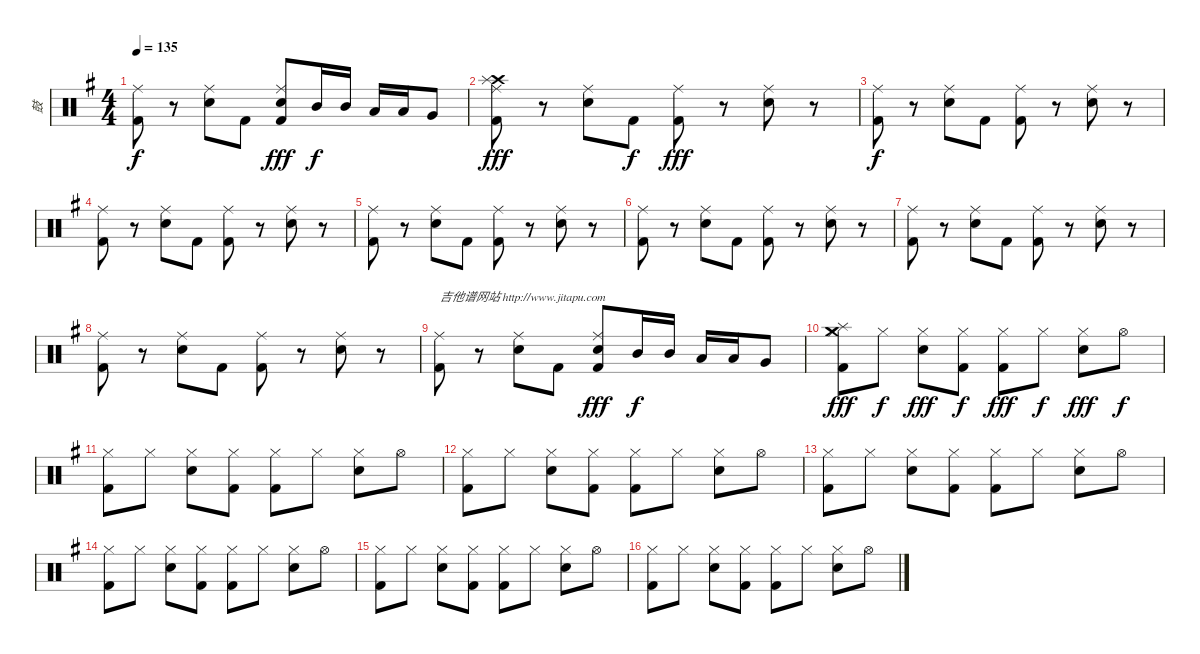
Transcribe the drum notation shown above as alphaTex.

\track ("鼓" "鼓") {instrument percussion}
\staff {score}
\articulation defaults
\ts (4 4)
\tempo 135
\clef neutral
\ks g
("Kick (hit) 2" "Ride (middle)").8{dy f} r.8 ("Snare (hit) 2" "Ride (middle)").8 "Kick (hit) 2".8 ("Kick (hit) 2" "Snare (hit) 2" "Ride (middle)").8{dy fff} "Mid Tom (hit)".16{dy f} "Mid Tom (hit)".16 "Low Tom (hit)".16 "Low Tom (hit)".16 "Very Low Tom (hit)".8 |
("Crash high (hit)" "Splash (hit)" "Kick (hit) 2" "Ride (middle)").8{dy fff} r.8 ("Snare (hit) 2" "Ride (middle)").8 "Kick (hit) 2".8{dy f} ("Kick (hit) 2" "Ride (middle)").8{dy fff} r.8 ("Snare (hit) 2" "Ride (middle)").8 r.8 |
("Kick (hit) 2" "Ride (middle)").8{dy f} r.8 ("Snare (hit) 2" "Ride (middle)").8 "Kick (hit) 2".8 ("Kick (hit) 2" "Ride (middle)").8 r.8 ("Snare (hit) 2" "Ride (middle)").8 r.8 |
("Kick (hit) 2" "Ride (middle)").8 r.8 ("Snare (hit) 2" "Ride (middle)").8 "Kick (hit) 2".8 ("Kick (hit) 2" "Ride (middle)").8 r.8 ("Snare (hit) 2" "Ride (middle)").8 r.8 |
("Kick (hit) 2" "Ride (middle)").8 r.8 ("Snare (hit) 2" "Ride (middle)").8 "Kick (hit) 2".8 ("Kick (hit) 2" "Ride (middle)").8 r.8 ("Snare (hit) 2" "Ride (middle)").8 r.8 |
("Kick (hit) 2" "Ride (middle)").8 r.8 ("Snare (hit) 2" "Ride (middle)").8 "Kick (hit) 2".8 ("Kick (hit) 2" "Ride (middle)").8 r.8 ("Snare (hit) 2" "Ride (middle)").8 r.8 |
("Kick (hit) 2" "Ride (middle)").8 r.8 ("Snare (hit) 2" "Ride (middle)").8 "Kick (hit) 2".8 ("Kick (hit) 2" "Ride (middle)").8 r.8 ("Snare (hit) 2" "Ride (middle)").8 r.8 |
("Kick (hit) 2" "Ride (middle)").8 r.8 ("Snare (hit) 2" "Ride (middle)").8 "Kick (hit) 2".8 ("Kick (hit) 2" "Ride (middle)").8 r.8 ("Snare (hit) 2" "Ride (middle)").8 r.8 |
("Kick (hit) 2" "Ride (middle)").8{txt "吉他谱网站 http://www.jitapu.com"} r.8 ("Snare (hit) 2" "Ride (middle)").8 "Kick (hit) 2".8 ("Kick (hit) 2" "Snare (hit) 2" "Ride (middle)").8{dy fff} "Mid Tom (hit)".16{dy f} "Mid Tom (hit)".16 "Low Tom (hit)".16 "Low Tom (hit)".16 "Very Low Tom (hit)".8 |
("Crash medium (hit)" "Splash (hit)" "Kick (hit) 2" "Hi-Hat (closed)").8{dy fff} "Hi-Hat (closed)".8{dy f} ("Snare (hit) 2" "Hi-Hat (closed)").8{dy fff} ("Kick (hit) 2" "Hi-Hat (closed)").8{dy f} ("Kick (hit) 2" "Hi-Hat (closed)").8{dy fff} "Hi-Hat (closed)".8{dy f} ("Snare (hit) 2" "Hi-Hat (closed)").8{dy fff} "Hi-Hat (open)".8{dy f} |
("Kick (hit) 2" "Hi-Hat (closed)").8 "Hi-Hat (closed)".8 ("Snare (hit) 2" "Hi-Hat (closed)").8 ("Kick (hit) 2" "Hi-Hat (closed)").8 ("Kick (hit) 2" "Hi-Hat (closed)").8 "Hi-Hat (closed)".8 ("Snare (hit) 2" "Hi-Hat (closed)").8 "Hi-Hat (open)".8 |
("Kick (hit) 2" "Hi-Hat (closed)").8 "Hi-Hat (closed)".8 ("Snare (hit) 2" "Hi-Hat (closed)").8 ("Kick (hit) 2" "Hi-Hat (closed)").8 ("Kick (hit) 2" "Hi-Hat (closed)").8 "Hi-Hat (closed)".8 ("Snare (hit) 2" "Hi-Hat (closed)").8 "Hi-Hat (open)".8 |
("Kick (hit) 2" "Hi-Hat (closed)").8 "Hi-Hat (closed)".8 ("Snare (hit) 2" "Hi-Hat (closed)").8 ("Kick (hit) 2" "Hi-Hat (closed)").8 ("Kick (hit) 2" "Hi-Hat (closed)").8 "Hi-Hat (closed)".8 ("Snare (hit) 2" "Hi-Hat (closed)").8 "Hi-Hat (open)".8 |
("Kick (hit) 2" "Hi-Hat (closed)").8 "Hi-Hat (closed)".8 ("Snare (hit) 2" "Hi-Hat (closed)").8 ("Kick (hit) 2" "Hi-Hat (closed)").8 ("Kick (hit) 2" "Hi-Hat (closed)").8 "Hi-Hat (closed)".8 ("Snare (hit) 2" "Hi-Hat (closed)").8 "Hi-Hat (open)".8 |
("Kick (hit) 2" "Hi-Hat (closed)").8 "Hi-Hat (closed)".8 ("Snare (hit) 2" "Hi-Hat (closed)").8 ("Kick (hit) 2" "Hi-Hat (closed)").8 ("Kick (hit) 2" "Hi-Hat (closed)").8 "Hi-Hat (closed)".8 ("Snare (hit) 2" "Hi-Hat (closed)").8 "Hi-Hat (open)".8 |
("Kick (hit) 2" "Hi-Hat (closed)").8 "Hi-Hat (closed)".8 ("Snare (hit) 2" "Hi-Hat (closed)").8 ("Kick (hit) 2" "Hi-Hat (closed)").8 ("Kick (hit) 2" "Hi-Hat (closed)").8 "Hi-Hat (closed)".8 ("Snare (hit) 2" "Hi-Hat (closed)").8 "Hi-Hat (open)".8
